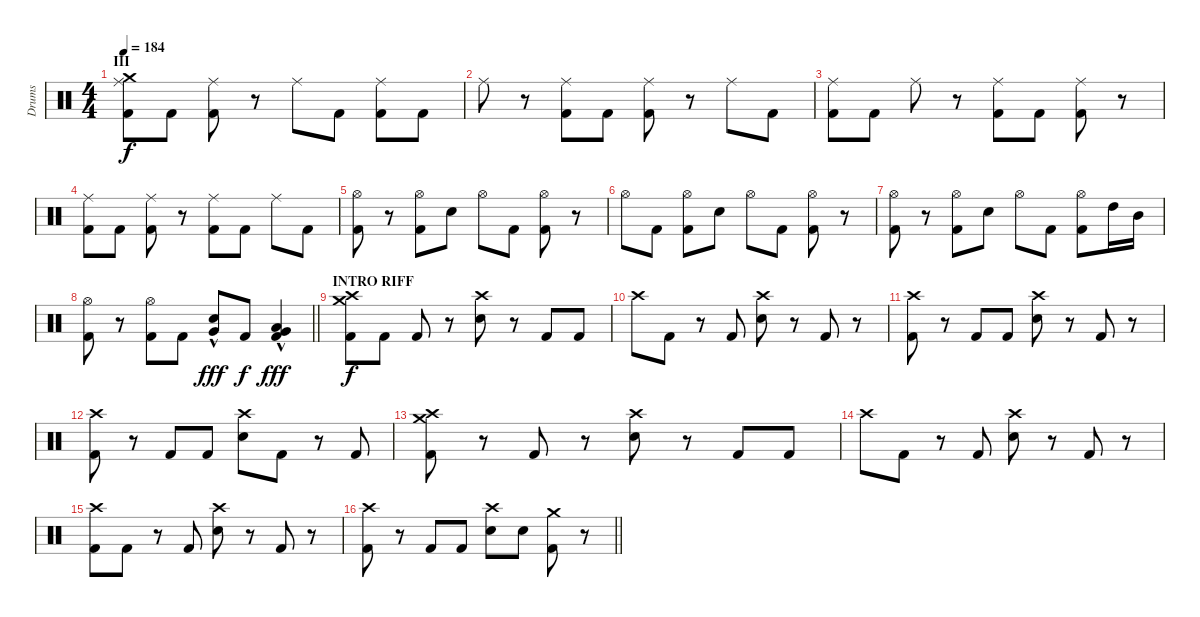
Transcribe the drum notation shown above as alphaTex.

\track ("Drums" "Drums") {instrument percussion}
\staff {score}
\articulation defaults
\ts (4 4)
\section ("" "III")
\tempo 184
\clef neutral
\ks c
("Crash medium (hit)" "Ride (middle)" "Kick (hit) 2").8{dy f} "Kick (hit) 2".8 ("Ride (middle)" "Kick (hit) 2").8 r.8 "Ride (middle)".8 "Kick (hit) 2".8 ("Ride (middle)" "Kick (hit) 2").8 "Kick (hit) 2".8 |
"Ride (middle)".8 r.8 ("Ride (middle)" "Kick (hit) 2").8 "Kick (hit) 2".8 ("Ride (middle)" "Kick (hit) 2").8 r.8 "Ride (middle)".8 "Kick (hit) 2".8 |
("Ride (middle)" "Kick (hit) 2").8 "Kick (hit) 2".8 "Ride (middle)".8 r.8 ("Ride (middle)" "Kick (hit) 2").8 "Kick (hit) 2".8 ("Ride (middle)" "Kick (hit) 2").8 r.8 |
("Ride (middle)" "Kick (hit) 2").8 "Kick (hit) 2".8 ("Ride (middle)" "Kick (hit) 2").8 r.8 ("Ride (middle)" "Kick (hit) 2").8 "Kick (hit) 2".8 "Ride (middle)".8 "Kick (hit) 2".8 |
("Hi-Hat (open)" "Kick (hit) 2").8 r.8 ("Hi-Hat (open)" "Kick (hit) 2").8 "Snare (hit) 2".8 "Hi-Hat (open)".8 "Kick (hit) 2".8 ("Hi-Hat (open)" "Kick (hit) 2").8 r.8 |
"Hi-Hat (open)".8 "Kick (hit) 2".8 ("Hi-Hat (open)" "Kick (hit) 2").8 "Snare (hit) 2".8 "Hi-Hat (open)".8 "Kick (hit) 2".8 ("Hi-Hat (open)" "Kick (hit) 2").8 r.8 |
("Hi-Hat (open)" "Kick (hit) 2").8 r.8 ("Hi-Hat (open)" "Kick (hit) 2").8 "Snare (hit) 2".8 "Hi-Hat (open)".8 "Kick (hit) 2".8 ("Hi-Hat (open)" "Kick (hit) 2").8 "High Tom (hit)".16 "Mid Tom (hit)".16 |
\barLineRight lightlight
("Hi-Hat (open)" "Kick (hit) 2").8 r.8 ("Hi-Hat (open)" "Kick (hit) 2").8 "Kick (hit) 2".8 ("Very Low Tom (hit)"{hac} "Snare (hit) 2"{hac}).8{dy fff} "Kick (hit) 2".8{dy f} ("Low Floor Tom (hit)"{hac} "Very Low Tom (hit)"{hac} "Kick (hit) 2"{hac}).4{dy fff} |
\section ("" "INTRO RIFF")
("Crash medium (hit)" "Crash high (hit)" "Kick (hit) 2").8{dy f} "Kick (hit) 2".8 "Kick (hit) 2".8 r.8 ("Crash high (hit)" "Snare (hit) 2").8 r.8 "Kick (hit) 2".8 "Kick (hit) 2".8 |
"Crash high (hit)".8 "Kick (hit) 2".8 r.8 "Kick (hit) 2".8 ("Crash high (hit)" "Snare (hit) 2").8 r.8 "Kick (hit) 2".8 r.8 |
("Crash high (hit)" "Kick (hit) 2").8 r.8 "Kick (hit) 2".8 "Kick (hit) 2".8 ("Crash high (hit)" "Snare (hit) 2").8 r.8 "Kick (hit) 2".8 r.8 |
("Crash high (hit)" "Kick (hit) 2").8 r.8 "Kick (hit) 2".8 "Kick (hit) 2".8 ("Crash high (hit)" "Snare (hit) 2").8 "Kick (hit) 2".8 r.8 "Kick (hit) 2".8 |
("Crash high (hit)" "Crash medium (hit)" "Kick (hit) 2").8 r.8 "Kick (hit) 2".8 r.8 ("Crash high (hit)" "Snare (hit) 2").8 r.8 "Kick (hit) 2".8 "Kick (hit) 2".8 |
"Crash high (hit)".8 "Kick (hit) 2".8 r.8 "Kick (hit) 2".8 ("Crash high (hit)" "Snare (hit) 2").8 r.8 "Kick (hit) 2".8 r.8 |
("Crash high (hit)" "Kick (hit) 2").8 "Kick (hit) 2".8 r.8 "Kick (hit) 2".8 ("Crash high (hit)" "Snare (hit) 2").8 r.8 "Kick (hit) 2".8 r.8 |
\barLineRight lightlight
("Crash high (hit)" "Kick (hit) 2").8 r.8 "Kick (hit) 2".8 "Kick (hit) 2".8 ("Crash high (hit)" "Snare (hit) 2").8 "Snare (hit) 2".8 ("Crash medium (hit)" "Kick (hit) 2").8 r.8
